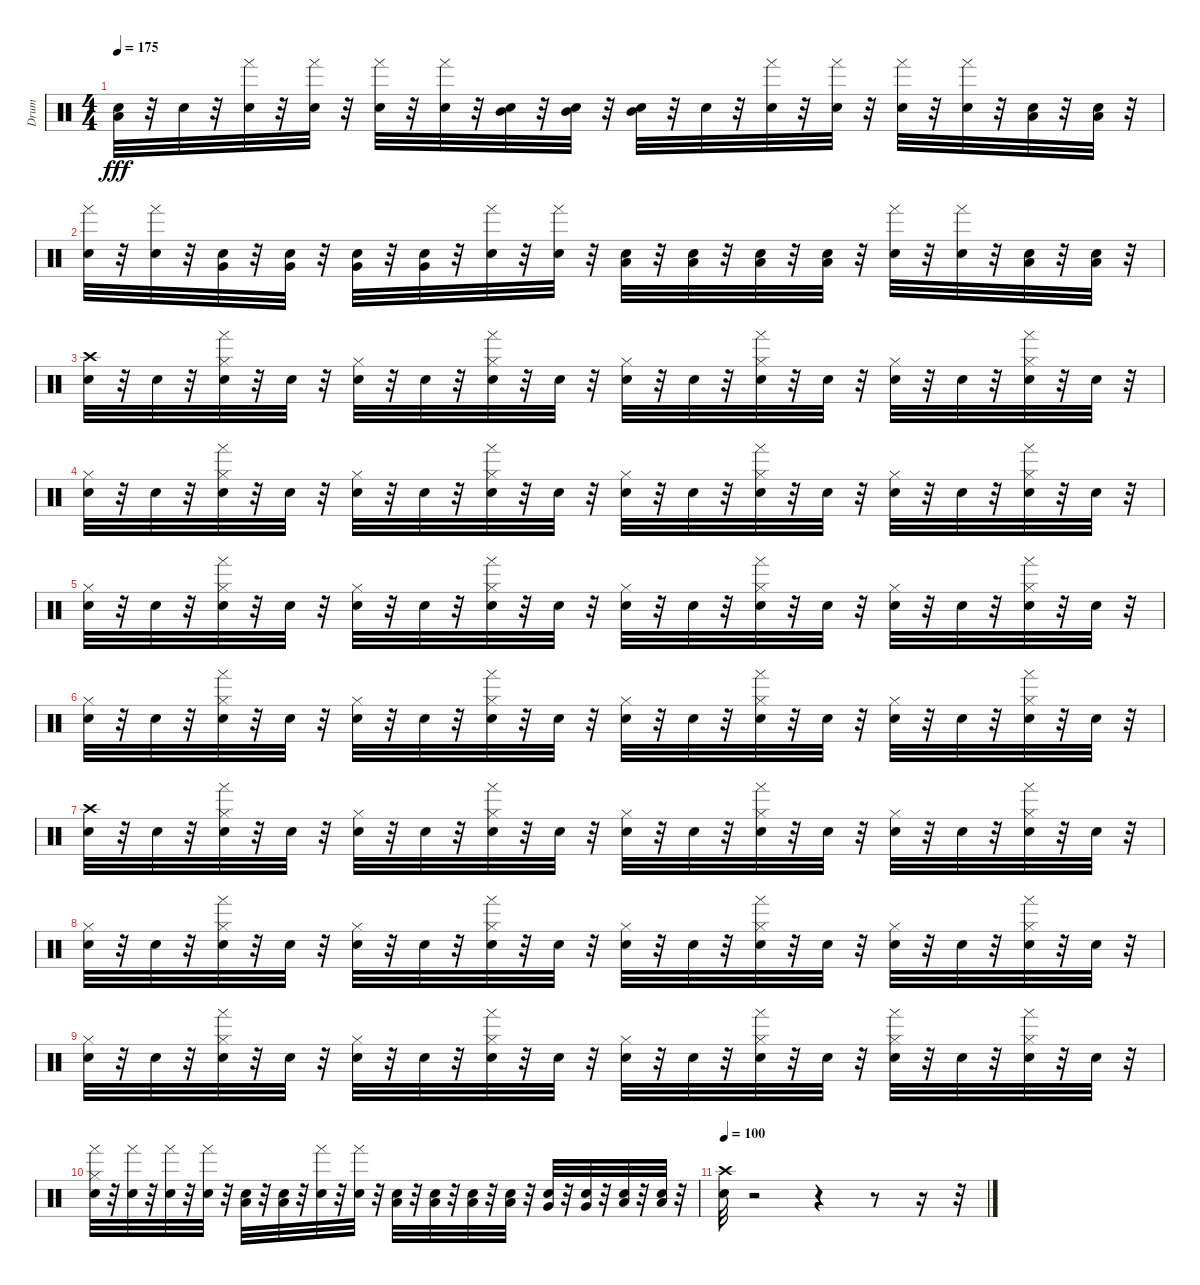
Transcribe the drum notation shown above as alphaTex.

\track ("Drum" "Drum") {instrument percussion}
\staff {score}
\articulation defaults
\ts (4 4)
\tempo 175
\clef neutral
\ks c
("Low Tom (hit)" "Snare (hit)").32{dy fff} r.32 "Snare (hit)".32 r.32 ("Tambourine (hand)" "Snare (hit)").32 r.32 ("Tambourine (hand)" "Snare (hit)").32 r.32 ("Tambourine (hand)" "Snare (hit)").32 r.32 ("Tambourine (hand)" "Snare (hit)").32 r.32 ("Snare (hit)" "Mid Tom (hit)").32 r.32 ("Snare (hit)" "Mid Tom (hit)").32 r.32 ("Snare (hit)" "Mid Tom (hit)").32 r.32 "Snare (hit)".32 r.32 ("Tambourine (hand)" "Snare (hit)").32 r.32 ("Tambourine (hand)" "Snare (hit)").32 r.32 ("Tambourine (hand)" "Snare (hit)").32 r.32 ("Tambourine (hand)" "Snare (hit)").32 r.32 ("Low Tom (hit)" "Snare (hit)").32 r.32 ("Low Tom (hit)" "Snare (hit)").32 r.32 |
("Tambourine (hand)" "Snare (hit)").32 r.32 ("Tambourine (hand)" "Snare (hit)").32 r.32 ("Snare (hit)" "Very Low Tom (hit)").32 r.32 ("Snare (hit)" "Very Low Tom (hit)").32 r.32 ("Snare (hit)" "Very Low Tom (hit)").32 r.32 ("Snare (hit)" "Very Low Tom (hit)").32 r.32 ("Tambourine (hand)" "Snare (hit)").32 r.32 ("Tambourine (hand)" "Snare (hit)").32 r.32 ("Snare (hit)" "Low Floor Tom (hit)").32 r.32 ("Snare (hit)" "Low Floor Tom (hit)").32 r.32 ("Snare (hit)" "Low Floor Tom (hit)").32 r.32 ("Snare (hit)" "Low Floor Tom (hit)").32 r.32 ("Tambourine (hand)" "Snare (hit)").32 r.32 ("Tambourine (hand)" "Snare (hit)").32 r.32 ("Snare (hit)" "Low Floor Tom (hit)").32 r.32 ("Snare (hit)" "Low Floor Tom (hit)").32 r.32 |
("Crash high (hit)" "Snare (hit)").32 r.32 "Snare (hit)".32 r.32 ("Hi-Hat (closed)" "Tambourine (hand)" "Snare (hit)").32 r.32 "Snare (hit)".32 r.32 ("Hi-Hat (closed)" "Snare (hit)").32 r.32 "Snare (hit)".32 r.32 ("Hi-Hat (closed)" "Tambourine (hand)" "Snare (hit)").32 r.32 "Snare (hit)".32 r.32 ("Hi-Hat (closed)" "Snare (hit)").32 r.32 "Snare (hit)".32 r.32 ("Hi-Hat (closed)" "Tambourine (hand)" "Snare (hit)").32 r.32 "Snare (hit)".32 r.32 ("Hi-Hat (closed)" "Snare (hit)").32 r.32 "Snare (hit)".32 r.32 ("Hi-Hat (closed)" "Tambourine (hand)" "Snare (hit)").32 r.32 "Snare (hit)".32 r.32 |
("Hi-Hat (closed)" "Snare (hit)").32 r.32 "Snare (hit)".32 r.32 ("Hi-Hat (closed)" "Tambourine (hand)" "Snare (hit)").32 r.32 "Snare (hit)".32 r.32 ("Hi-Hat (closed)" "Snare (hit)").32 r.32 "Snare (hit)".32 r.32 ("Hi-Hat (closed)" "Tambourine (hand)" "Snare (hit)").32 r.32 "Snare (hit)".32 r.32 ("Hi-Hat (closed)" "Snare (hit)").32 r.32 "Snare (hit)".32 r.32 ("Hi-Hat (closed)" "Tambourine (hand)" "Snare (hit)").32 r.32 "Snare (hit)".32 r.32 ("Hi-Hat (closed)" "Snare (hit)").32 r.32 "Snare (hit)".32 r.32 ("Hi-Hat (closed)" "Tambourine (hand)" "Snare (hit)").32 r.32 "Snare (hit)".32 r.32 |
("Hi-Hat (closed)" "Snare (hit)").32 r.32 "Snare (hit)".32 r.32 ("Hi-Hat (closed)" "Tambourine (hand)" "Snare (hit)").32 r.32 "Snare (hit)".32 r.32 ("Hi-Hat (closed)" "Snare (hit)").32 r.32 "Snare (hit)".32 r.32 ("Hi-Hat (closed)" "Tambourine (hand)" "Snare (hit)").32 r.32 "Snare (hit)".32 r.32 ("Hi-Hat (closed)" "Snare (hit)").32 r.32 "Snare (hit)".32 r.32 ("Hi-Hat (closed)" "Tambourine (hand)" "Snare (hit)").32 r.32 "Snare (hit)".32 r.32 ("Hi-Hat (closed)" "Snare (hit)").32 r.32 "Snare (hit)".32 r.32 ("Hi-Hat (closed)" "Tambourine (hand)" "Snare (hit)").32 r.32 "Snare (hit)".32 r.32 |
("Hi-Hat (closed)" "Snare (hit)").32 r.32 "Snare (hit)".32 r.32 ("Hi-Hat (closed)" "Tambourine (hand)" "Snare (hit)").32 r.32 "Snare (hit)".32 r.32 ("Hi-Hat (closed)" "Snare (hit)").32 r.32 "Snare (hit)".32 r.32 ("Hi-Hat (closed)" "Tambourine (hand)" "Snare (hit)").32 r.32 "Snare (hit)".32 r.32 ("Hi-Hat (closed)" "Snare (hit)").32 r.32 "Snare (hit)".32 r.32 ("Hi-Hat (closed)" "Tambourine (hand)" "Snare (hit)").32 r.32 "Snare (hit)".32 r.32 ("Hi-Hat (closed)" "Snare (hit)").32 r.32 "Snare (hit)".32 r.32 ("Hi-Hat (closed)" "Tambourine (hand)" "Snare (hit)").32 r.32 "Snare (hit)".32 r.32 |
("Crash high (hit)" "Snare (hit)").32 r.32 "Snare (hit)".32 r.32 ("Hi-Hat (closed)" "Tambourine (hand)" "Snare (hit)").32 r.32 "Snare (hit)".32 r.32 ("Hi-Hat (closed)" "Snare (hit)").32 r.32 "Snare (hit)".32 r.32 ("Hi-Hat (closed)" "Tambourine (hand)" "Snare (hit)").32 r.32 "Snare (hit)".32 r.32 ("Hi-Hat (closed)" "Snare (hit)").32 r.32 "Snare (hit)".32 r.32 ("Hi-Hat (closed)" "Tambourine (hand)" "Snare (hit)").32 r.32 "Snare (hit)".32 r.32 ("Hi-Hat (closed)" "Snare (hit)").32 r.32 "Snare (hit)".32 r.32 ("Hi-Hat (closed)" "Tambourine (hand)" "Snare (hit)").32 r.32 "Snare (hit)".32 r.32 |
("Hi-Hat (closed)" "Snare (hit)").32 r.32 "Snare (hit)".32 r.32 ("Hi-Hat (closed)" "Tambourine (hand)" "Snare (hit)").32 r.32 "Snare (hit)".32 r.32 ("Hi-Hat (closed)" "Snare (hit)").32 r.32 "Snare (hit)".32 r.32 ("Hi-Hat (closed)" "Tambourine (hand)" "Snare (hit)").32 r.32 "Snare (hit)".32 r.32 ("Hi-Hat (closed)" "Snare (hit)").32 r.32 "Snare (hit)".32 r.32 ("Hi-Hat (closed)" "Tambourine (hand)" "Snare (hit)").32 r.32 "Snare (hit)".32 r.32 ("Hi-Hat (closed)" "Snare (hit)").32 r.32 "Snare (hit)".32 r.32 ("Hi-Hat (closed)" "Tambourine (hand)" "Snare (hit)").32 r.32 "Snare (hit)".32 r.32 |
("Hi-Hat (closed)" "Snare (hit)").32 r.32 "Snare (hit)".32 r.32 ("Hi-Hat (closed)" "Tambourine (hand)" "Snare (hit)").32 r.32 "Snare (hit)".32 r.32 ("Hi-Hat (closed)" "Snare (hit)").32 r.32 "Snare (hit)".32 r.32 ("Hi-Hat (closed)" "Tambourine (hand)" "Snare (hit)").32 r.32 "Snare (hit)".32 r.32 ("Hi-Hat (closed)" "Snare (hit)").32 r.32 "Snare (hit)".32 r.32 ("Hi-Hat (closed)" "Tambourine (hand)" "Snare (hit)").32 r.32 "Snare (hit)".32 r.32 ("Hi-Hat (closed)" "Tambourine (hand)" "Snare (hit)").32 r.32 "Snare (hit)".32 r.32 ("Hi-Hat (closed)" "Tambourine (hand)" "Snare (hit)").32 r.32 "Snare (hit)".32 r.32 |
("Hi-Hat (closed)" "Tambourine (hand)" "Snare (hit)").32 r.32 ("Tambourine (hand)" "Snare (hit)").32 r.32 ("Tambourine (hand)" "Snare (hit)").32 r.32 ("Tambourine (hand)" "Snare (hit)").32 r.32 ("Low Tom (hit)" "Snare (hit)").32 r.32 ("Low Tom (hit)" "Snare (hit)").32 r.32 ("Tambourine (hand)" "Snare (hit)").32 r.32 ("Tambourine (hand)" "Snare (hit)").32 r.32 ("Low Tom (hit)" "Snare (hit)").32 r.32 ("Low Tom (hit)" "Snare (hit)").32 r.32 ("Low Tom (hit)" "Snare (hit)").32 r.32 ("Low Tom (hit)" "Snare (hit)").32 r.32 ("Very Low Tom (hit)" "Snare (hit)").32 r.32 ("Very Low Tom (hit)" "Snare (hit)").32 r.32 ("Low Floor Tom (hit)" "Snare (hit)").32 r.32 ("Low Floor Tom (hit)" "Snare (hit)").32 r.32 |
\tempo 100
("Crash high (hit)" "Snare (hit)").32 r.2 r.4 r.8 r.16 r.32
